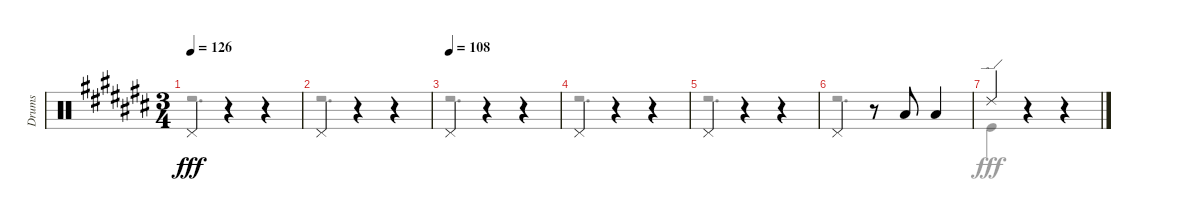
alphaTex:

\track ("Drums" "Drums") {instrument percussion}
\staff {score}
\articulation defaults
\voice
\ts (3 4)
\tempo 126
\clef neutral
\ks c# "Pedal Hi-Hat (hit)".4{dy fff}
r.4 r.4 |
"Pedal Hi-Hat (hit)".4 r.4 r.4 |
\tempo (108)
"Pedal Hi-Hat (hit)".4 r.4 r.4 |
"Pedal Hi-Hat (hit)".4 r.4 r.4 |
"Pedal Hi-Hat (hit)".4 r.4 r.4 |
"Pedal Hi-Hat (hit)".4 r.8 "Low Tom (hit)".8 "Low Tom (hit)".4 |
"Ride (edge) 2".4 r.4 r.4 |
\voice
\clef neutral
\ottava regular
\simile none
\ks c#
r.2{d dy fff} |
r.2{d} |
r.2{d} |
r.2{d} |
r.2{d} |
r.2{d} |
"Kick (hit)".4 r.4 r.4 |
